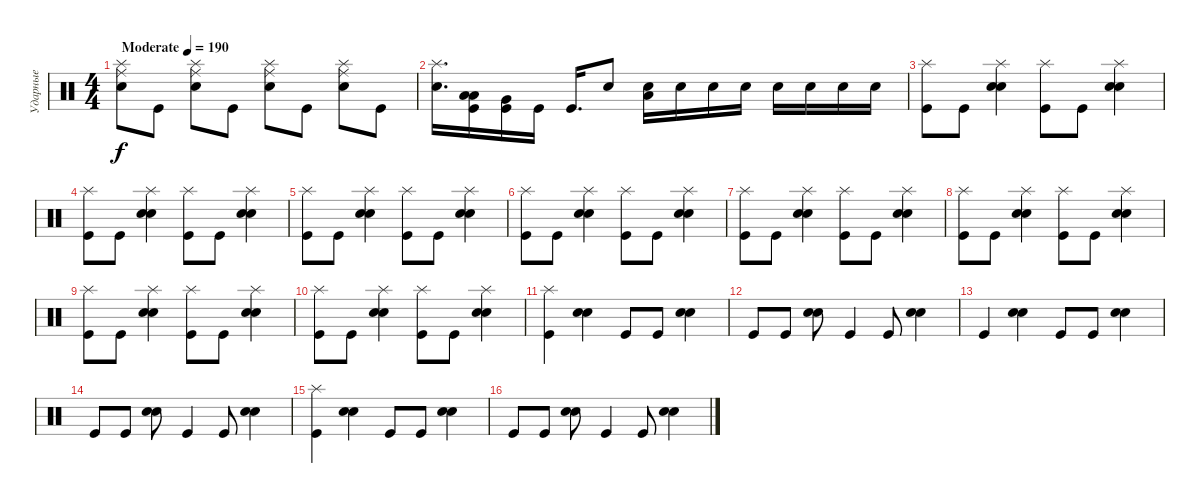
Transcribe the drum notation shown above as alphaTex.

\track ("Ударные" "Ударные") {instrument percussion}
\staff {score}
\articulation defaults
\ts (4 4)
\tempo (190 "Moderate")
\clef neutral
\ks c
("Electric Snare (hit)" "Splash (hit)" "Ride (middle)").8{dy f} "Kick (hit)".8 ("Electric Snare (hit)" "Splash (hit)" "Ride (middle)").8 "Kick (hit)".8 ("Electric Snare (hit)" "Splash (hit)" "Ride (middle)").8 "Kick (hit)".8 ("Electric Snare (hit)" "Splash (hit)" "Ride (middle)").8 "Kick (hit)".8 |
("Electric Snare (hit)" "Splash (hit)").16{d} ("Low Tom (hit)" "Low Floor Tom (hit)" "Kick (hit)").16 ("Very Low Tom (hit)" "Kick (hit)").16 "Kick (hit)".16 "Kick (hit)".16{d} "Electric Snare (hit)".8 ("Low Floor Tom (hit)" "Electric Snare (hit)").16 "Electric Snare (hit)".16 "Electric Snare (hit)".16 "Electric Snare (hit)".16 "Electric Snare (hit)".16 "Electric Snare (hit)".16 "Electric Snare (hit)".16 "Electric Snare (hit)".16 |
("Splash (hit)" "Kick (hit)").8 "Kick (hit)".8 ("Splash (hit)" "Snare (hit) 2" "Electric Snare (hit)").4 ("Splash (hit)" "Kick (hit)").8 "Kick (hit)".8 ("Splash (hit)" "Snare (hit) 2" "Electric Snare (hit)").4 |
("Splash (hit)" "Kick (hit)").8 "Kick (hit)".8 ("Splash (hit)" "Snare (hit) 2" "Electric Snare (hit)").4 ("Splash (hit)" "Kick (hit)").8 "Kick (hit)".8 ("Splash (hit)" "Snare (hit) 2" "Electric Snare (hit)").4 |
("Splash (hit)" "Kick (hit)").8 "Kick (hit)".8 ("Splash (hit)" "Snare (hit) 2" "Electric Snare (hit)").4 ("Splash (hit)" "Kick (hit)").8 "Kick (hit)".8 ("Splash (hit)" "Snare (hit) 2" "Electric Snare (hit)").4 |
("Splash (hit)" "Kick (hit)").8 "Kick (hit)".8 ("Splash (hit)" "Snare (hit) 2" "Electric Snare (hit)").4 ("Splash (hit)" "Kick (hit)").8 "Kick (hit)".8 ("Splash (hit)" "Snare (hit) 2" "Electric Snare (hit)").4 |
("Splash (hit)" "Kick (hit)").8 "Kick (hit)".8 ("Splash (hit)" "Snare (hit) 2" "Electric Snare (hit)").4 ("Splash (hit)" "Kick (hit)").8 "Kick (hit)".8 ("Splash (hit)" "Snare (hit) 2" "Electric Snare (hit)").4 |
("Splash (hit)" "Kick (hit)").8 "Kick (hit)".8 ("Splash (hit)" "Snare (hit) 2" "Electric Snare (hit)").4 ("Splash (hit)" "Kick (hit)").8 "Kick (hit)".8 ("Splash (hit)" "Snare (hit) 2" "Electric Snare (hit)").4 |
("Splash (hit)" "Kick (hit)").8 "Kick (hit)".8 ("Splash (hit)" "Snare (hit) 2" "Electric Snare (hit)").4 ("Splash (hit)" "Kick (hit)").8 "Kick (hit)".8 ("Splash (hit)" "Snare (hit) 2" "Electric Snare (hit)").4 |
("Splash (hit)" "Kick (hit)").8 "Kick (hit)".8 ("Splash (hit)" "Snare (hit) 2" "Electric Snare (hit)").4 ("Splash (hit)" "Kick (hit)").8 "Kick (hit)".8 ("Splash (hit)" "Snare (hit) 2" "Electric Snare (hit)").4 |
("Splash (hit)" "Kick (hit)").4 ("Snare (hit) 2" "Electric Snare (hit)").4 "Kick (hit)".8 "Kick (hit)".8 ("Snare (hit) 2" "Electric Snare (hit)").4 |
"Kick (hit)".8 "Kick (hit)".8 ("Snare (hit) 2" "Electric Snare (hit)").8 "Kick (hit)".4 "Kick (hit)".8 ("Snare (hit) 2" "Electric Snare (hit)").4 |
"Kick (hit)".4 ("Snare (hit) 2" "Electric Snare (hit)").4 "Kick (hit)".8 "Kick (hit)".8 ("Snare (hit) 2" "Electric Snare (hit)").4 |
"Kick (hit)".8 "Kick (hit)".8 ("Snare (hit) 2" "Electric Snare (hit)").8 "Kick (hit)".4 "Kick (hit)".8 ("Snare (hit) 2" "Electric Snare (hit)").4 |
("Splash (hit)" "Kick (hit)").4 ("Snare (hit) 2" "Electric Snare (hit)").4 "Kick (hit)".8 "Kick (hit)".8 ("Snare (hit) 2" "Electric Snare (hit)").4 |
"Kick (hit)".8 "Kick (hit)".8 ("Snare (hit) 2" "Electric Snare (hit)").8 "Kick (hit)".4 "Kick (hit)".8 ("Snare (hit) 2" "Electric Snare (hit)").4
